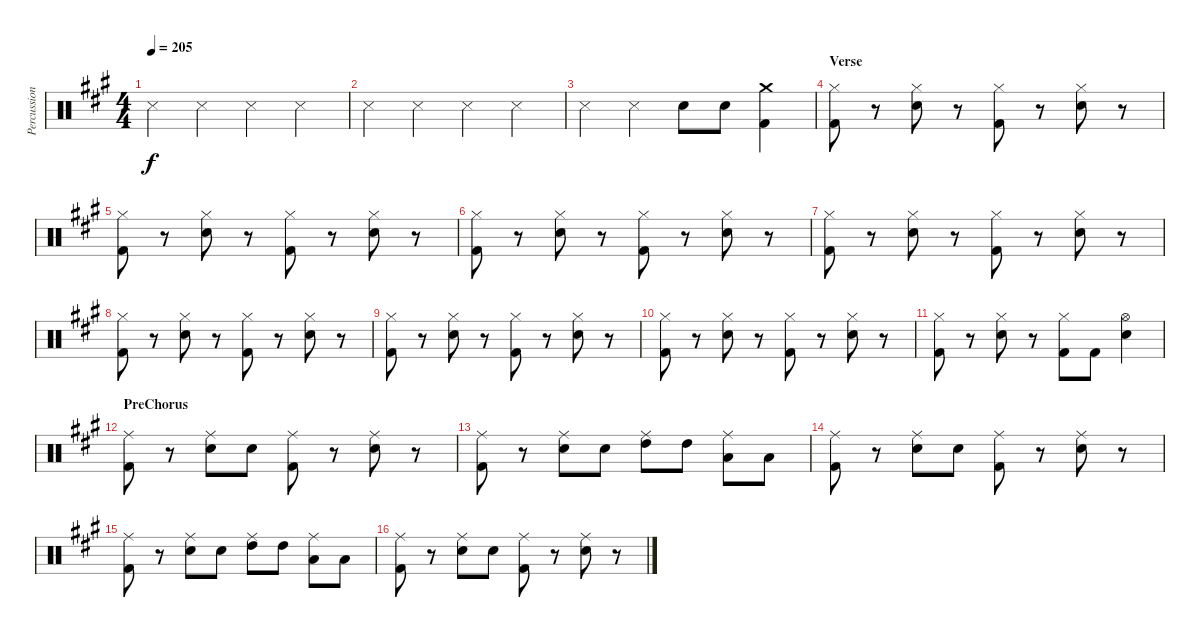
\track ("Percussion" "Percussion") {instrument percussion}
\staff {score}
\articulation defaults
\ts (4 4)
\tempo 205
\clef neutral
\ks a "Snare (side stick) 3".4{dy f} "Snare (side stick) 3".4 "Snare (side stick) 3".4 "Snare (side stick) 3".4
|
"Snare (side stick) 3".4 "Snare (side stick) 3".4 "Snare (side stick) 3".4 "Snare (side stick) 3".4 |
"Snare (side stick) 3".4 "Snare (side stick) 3".4 "Snare (hit) 2".8 "Snare (hit) 2".8 ("Crash medium (hit)" "Kick (hit) 2").4 |
\section ("" "Verse")
("Hi-Hat (closed)" "Kick (hit) 2").8 r.8 ("Hi-Hat (closed)" "Snare (hit) 2").8 r.8 ("Hi-Hat (closed)" "Kick (hit) 2").8 r.8 ("Hi-Hat (closed)" "Snare (hit) 2").8 r.8 |
("Hi-Hat (closed)" "Kick (hit) 2").8 r.8 ("Hi-Hat (closed)" "Snare (hit) 2").8 r.8 ("Hi-Hat (closed)" "Kick (hit) 2").8 r.8 ("Hi-Hat (closed)" "Snare (hit) 2").8 r.8 |
("Hi-Hat (closed)" "Kick (hit) 2").8 r.8 ("Hi-Hat (closed)" "Snare (hit) 2").8 r.8 ("Hi-Hat (closed)" "Kick (hit) 2").8 r.8 ("Hi-Hat (closed)" "Snare (hit) 2").8 r.8 |
("Hi-Hat (closed)" "Kick (hit) 2").8 r.8 ("Hi-Hat (closed)" "Snare (hit) 2").8 r.8 ("Hi-Hat (closed)" "Kick (hit) 2").8 r.8 ("Hi-Hat (closed)" "Snare (hit) 2").8 r.8 |
("Hi-Hat (closed)" "Kick (hit) 2").8 r.8 ("Hi-Hat (closed)" "Snare (hit) 2").8 r.8 ("Hi-Hat (closed)" "Kick (hit) 2").8 r.8 ("Hi-Hat (closed)" "Snare (hit) 2").8 r.8 |
("Hi-Hat (closed)" "Kick (hit) 2").8 r.8 ("Hi-Hat (closed)" "Snare (hit) 2").8 r.8 ("Hi-Hat (closed)" "Kick (hit) 2").8 r.8 ("Hi-Hat (closed)" "Snare (hit) 2").8 r.8 |
("Hi-Hat (closed)" "Kick (hit) 2").8 r.8 ("Hi-Hat (closed)" "Snare (hit) 2").8 r.8 ("Hi-Hat (closed)" "Kick (hit) 2").8 r.8 ("Hi-Hat (closed)" "Snare (hit) 2").8 r.8 |
("Hi-Hat (closed)" "Kick (hit) 2").8 r.8 ("Hi-Hat (closed)" "Snare (hit) 2").8 r.8 ("Hi-Hat (closed)" "Kick (hit) 2").8 "Kick (hit) 2".8 ("Hi-Hat (open)" "Snare (hit) 2").4 |
\section ("" "PreChorus")
("Ride (middle)" "Kick (hit) 2").8 r.8 ("Ride (middle)" "Snare (hit) 2").8 "Snare (hit) 2".8 ("Ride (middle)" "Kick (hit) 2").8 r.8 ("Ride (middle)" "Snare (hit) 2").8 r.8 |
("Ride (middle)" "Kick (hit) 2").8 r.8 ("Ride (middle)" "Snare (hit) 2").8 "Snare (hit) 2".8 ("Ride (middle)" "High Tom (hit)").8 "High Tom (hit)".8 ("Ride (middle)" "Low Tom (hit)").8 "Low Tom (hit)".8 |
("Ride (middle)" "Kick (hit) 2").8 r.8 ("Ride (middle)" "Snare (hit) 2").8 "Snare (hit) 2".8 ("Ride (middle)" "Kick (hit) 2").8 r.8 ("Ride (middle)" "Snare (hit) 2").8 r.8 |
("Ride (middle)" "Kick (hit) 2").8 r.8 ("Ride (middle)" "Snare (hit) 2").8 "Snare (hit) 2".8 ("Ride (middle)" "High Tom (hit)").8 "High Tom (hit)".8 ("Ride (middle)" "Low Tom (hit)").8 "Low Tom (hit)".8 |
("Ride (middle)" "Kick (hit) 2").8 r.8 ("Ride (middle)" "Snare (hit) 2").8 "Snare (hit) 2".8 ("Ride (middle)" "Kick (hit) 2").8 r.8 ("Ride (middle)" "Snare (hit) 2").8 r.8
